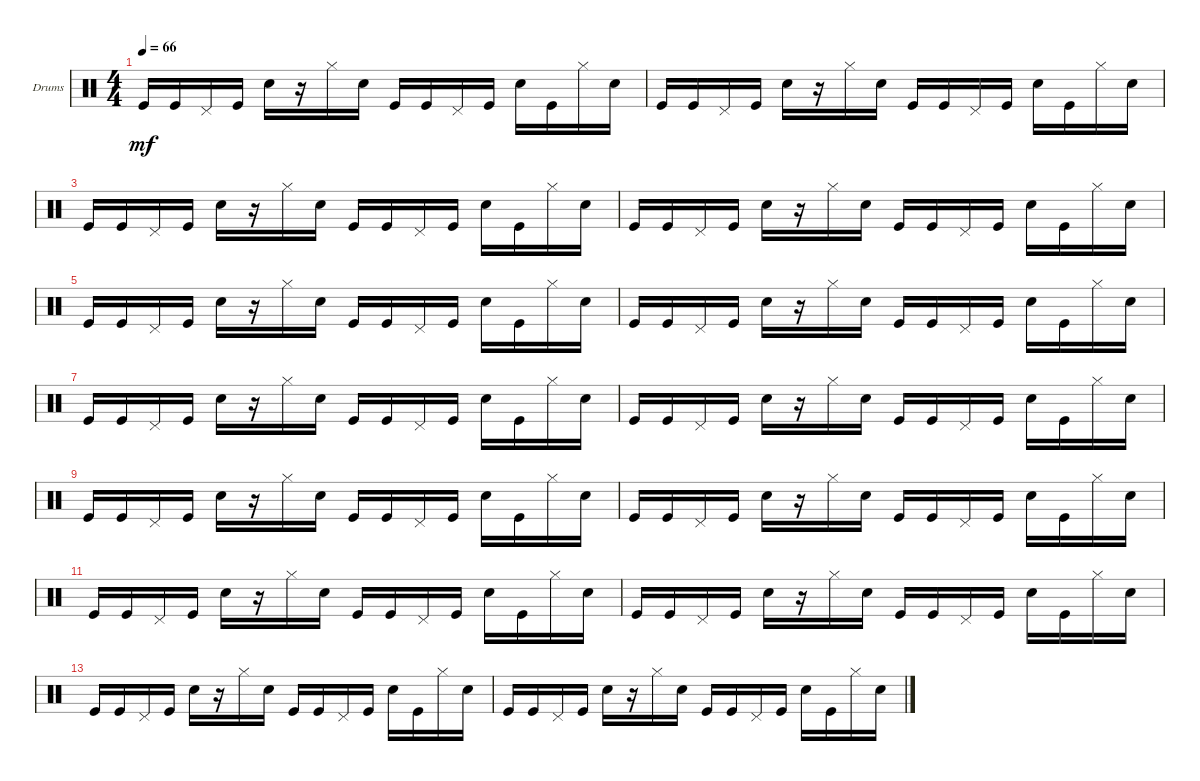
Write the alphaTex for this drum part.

\bracketExtendMode nobrackets
\firstSystemTrackNameOrientation horizontal
\otherSystemsTrackNameOrientation horizontal
\defaultBarNumberDisplay FirstOfSystem
\track ("Drumkit" "Drums") {instrument percussion}
\staff {score}
\articulation defaults
\ts (4 4)
\tempo 66
\clef neutral
\ks c "Kick (hit)".16{dy mf} "Kick (hit)".16 "Pedal Hi-Hat (hit)".16 "Kick (hit)".16 "Snare (hit) 2".16
r.16 "Hi-Hat (closed)".16 "Snare (hit) 2".16 "Kick (hit)".16 "Kick (hit)".16 "Pedal Hi-Hat (hit)".16 "Kick (hit)".16 "Snare (hit) 2".16 "Kick (hit)".16 "Hi-Hat (closed)".16 "Snare (hit) 2".16 |
"Kick (hit)".16 "Kick (hit)".16 "Pedal Hi-Hat (hit)".16 "Kick (hit)".16 "Snare (hit) 2".16 r.16 "Hi-Hat (closed)".16 "Snare (hit) 2".16 "Kick (hit)".16 "Kick (hit)".16 "Pedal Hi-Hat (hit)".16 "Kick (hit)".16 "Snare (hit) 2".16 "Kick (hit)".16 "Hi-Hat (closed)".16 "Snare (hit) 2".16 |
"Kick (hit)".16 "Kick (hit)".16 "Pedal Hi-Hat (hit)".16 "Kick (hit)".16 "Snare (hit) 2".16 r.16 "Hi-Hat (closed)".16 "Snare (hit) 2".16 "Kick (hit)".16 "Kick (hit)".16 "Pedal Hi-Hat (hit)".16 "Kick (hit)".16 "Snare (hit) 2".16 "Kick (hit)".16 "Hi-Hat (closed)".16 "Snare (hit) 2".16 |
"Kick (hit)".16 "Kick (hit)".16 "Pedal Hi-Hat (hit)".16 "Kick (hit)".16 "Snare (hit) 2".16 r.16 "Hi-Hat (closed)".16 "Snare (hit) 2".16 "Kick (hit)".16 "Kick (hit)".16 "Pedal Hi-Hat (hit)".16 "Kick (hit)".16 "Snare (hit) 2".16 "Kick (hit)".16 "Hi-Hat (closed)".16 "Snare (hit) 2".16 |
"Kick (hit)".16 "Kick (hit)".16 "Pedal Hi-Hat (hit)".16 "Kick (hit)".16 "Snare (hit) 2".16 r.16 "Hi-Hat (closed)".16 "Snare (hit) 2".16 "Kick (hit)".16 "Kick (hit)".16 "Pedal Hi-Hat (hit)".16 "Kick (hit)".16 "Snare (hit) 2".16 "Kick (hit)".16 "Hi-Hat (closed)".16 "Snare (hit) 2".16 |
"Kick (hit)".16 "Kick (hit)".16 "Pedal Hi-Hat (hit)".16 "Kick (hit)".16 "Snare (hit) 2".16 r.16 "Hi-Hat (closed)".16 "Snare (hit) 2".16 "Kick (hit)".16 "Kick (hit)".16 "Pedal Hi-Hat (hit)".16 "Kick (hit)".16 "Snare (hit) 2".16 "Kick (hit)".16 "Hi-Hat (closed)".16 "Snare (hit) 2".16 |
"Kick (hit)".16 "Kick (hit)".16 "Pedal Hi-Hat (hit)".16 "Kick (hit)".16 "Snare (hit) 2".16 r.16 "Hi-Hat (closed)".16 "Snare (hit) 2".16 "Kick (hit)".16 "Kick (hit)".16 "Pedal Hi-Hat (hit)".16 "Kick (hit)".16 "Snare (hit) 2".16 "Kick (hit)".16 "Hi-Hat (closed)".16 "Snare (hit) 2".16 |
"Kick (hit)".16 "Kick (hit)".16 "Pedal Hi-Hat (hit)".16 "Kick (hit)".16 "Snare (hit) 2".16 r.16 "Hi-Hat (closed)".16 "Snare (hit) 2".16 "Kick (hit)".16 "Kick (hit)".16 "Pedal Hi-Hat (hit)".16 "Kick (hit)".16 "Snare (hit) 2".16 "Kick (hit)".16 "Hi-Hat (closed)".16 "Snare (hit) 2".16 |
"Kick (hit)".16 "Kick (hit)".16 "Pedal Hi-Hat (hit)".16 "Kick (hit)".16 "Snare (hit) 2".16 r.16 "Hi-Hat (closed)".16 "Snare (hit) 2".16 "Kick (hit)".16 "Kick (hit)".16 "Pedal Hi-Hat (hit)".16 "Kick (hit)".16 "Snare (hit) 2".16 "Kick (hit)".16 "Hi-Hat (closed)".16 "Snare (hit) 2".16 |
"Kick (hit)".16 "Kick (hit)".16 "Pedal Hi-Hat (hit)".16 "Kick (hit)".16 "Snare (hit) 2".16 r.16 "Hi-Hat (closed)".16 "Snare (hit) 2".16 "Kick (hit)".16 "Kick (hit)".16 "Pedal Hi-Hat (hit)".16 "Kick (hit)".16 "Snare (hit) 2".16 "Kick (hit)".16 "Hi-Hat (closed)".16 "Snare (hit) 2".16 |
"Kick (hit)".16 "Kick (hit)".16 "Pedal Hi-Hat (hit)".16 "Kick (hit)".16 "Snare (hit) 2".16 r.16 "Hi-Hat (closed)".16 "Snare (hit) 2".16 "Kick (hit)".16 "Kick (hit)".16 "Pedal Hi-Hat (hit)".16 "Kick (hit)".16 "Snare (hit) 2".16 "Kick (hit)".16 "Hi-Hat (closed)".16 "Snare (hit) 2".16 |
"Kick (hit)".16 "Kick (hit)".16 "Pedal Hi-Hat (hit)".16 "Kick (hit)".16 "Snare (hit) 2".16 r.16 "Hi-Hat (closed)".16 "Snare (hit) 2".16 "Kick (hit)".16 "Kick (hit)".16 "Pedal Hi-Hat (hit)".16 "Kick (hit)".16 "Snare (hit) 2".16 "Kick (hit)".16 "Hi-Hat (closed)".16 "Snare (hit) 2".16 |
"Kick (hit)".16 "Kick (hit)".16 "Pedal Hi-Hat (hit)".16 "Kick (hit)".16 "Snare (hit) 2".16 r.16 "Hi-Hat (closed)".16 "Snare (hit) 2".16 "Kick (hit)".16 "Kick (hit)".16 "Pedal Hi-Hat (hit)".16 "Kick (hit)".16 "Snare (hit) 2".16 "Kick (hit)".16 "Hi-Hat (closed)".16 "Snare (hit) 2".16 |
"Kick (hit)".16 "Kick (hit)".16 "Pedal Hi-Hat (hit)".16 "Kick (hit)".16 "Snare (hit) 2".16 r.16 "Hi-Hat (closed)".16 "Snare (hit) 2".16 "Kick (hit)".16 "Kick (hit)".16 "Pedal Hi-Hat (hit)".16 "Kick (hit)".16 "Snare (hit) 2".16 "Kick (hit)".16 "Hi-Hat (closed)".16 "Snare (hit) 2".16
